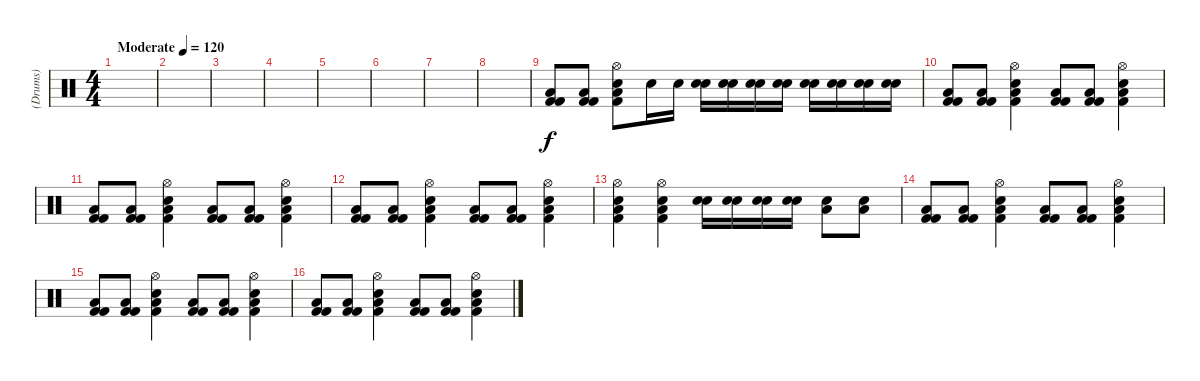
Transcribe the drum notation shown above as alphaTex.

\track ("(Drums)" "(Drums)") {instrument percussion}
\staff {score}
\articulation defaults
\ts (4 4)
\tempo (120 "Moderate")
\clef neutral
\ks c
|
|
|
|
|
|
|
|
("Kick (hit) 2" "Kick (hit) 2" "Low Floor Tom (hit)").8 ("Kick (hit) 2" "Kick (hit) 2" "Low Floor Tom (hit)").8 ("Kick (hit) 2" "Electric Snare (hit)" "Low Floor Tom (hit)" "Hi-Hat (open)").8 "Electric Snare (hit)".16 "Electric Snare (hit)".16 ("Electric Snare (hit)" "Electric Snare (hit)").16 ("Electric Snare (hit)" "Electric Snare (hit)").16 ("Electric Snare (hit)" "Electric Snare (hit)").16 ("Electric Snare (hit)" "Electric Snare (hit)").16 ("Electric Snare (hit)" "Electric Snare (hit)").16 ("Electric Snare (hit)" "Electric Snare (hit)").16 ("Electric Snare (hit)" "Electric Snare (hit)").16 ("Electric Snare (hit)" "Electric Snare (hit)").16 |
("Kick (hit) 2" "Kick (hit) 2" "Low Floor Tom (hit)").8 ("Kick (hit) 2" "Kick (hit) 2" "Low Floor Tom (hit)").8 ("Kick (hit) 2" "Electric Snare (hit)" "Low Floor Tom (hit)" "Hi-Hat (open)").4 ("Kick (hit) 2" "Kick (hit) 2" "Low Floor Tom (hit)").8 ("Kick (hit) 2" "Kick (hit) 2" "Low Floor Tom (hit)").8 ("Kick (hit) 2" "Electric Snare (hit)" "Low Floor Tom (hit)" "Hi-Hat (open)").4 |
("Kick (hit) 2" "Kick (hit) 2" "Low Floor Tom (hit)").8 ("Kick (hit) 2" "Kick (hit) 2" "Low Floor Tom (hit)").8 ("Kick (hit) 2" "Electric Snare (hit)" "Low Floor Tom (hit)" "Hi-Hat (open)").4 ("Kick (hit) 2" "Kick (hit) 2" "Low Floor Tom (hit)").8 ("Kick (hit) 2" "Kick (hit) 2" "Low Floor Tom (hit)").8 ("Kick (hit) 2" "Electric Snare (hit)" "Low Floor Tom (hit)" "Hi-Hat (open)").4 |
("Kick (hit) 2" "Kick (hit) 2" "Low Floor Tom (hit)").8 ("Kick (hit) 2" "Kick (hit) 2" "Low Floor Tom (hit)").8 ("Kick (hit) 2" "Electric Snare (hit)" "Low Floor Tom (hit)" "Hi-Hat (open)").4 ("Kick (hit) 2" "Kick (hit) 2" "Low Floor Tom (hit)").8 ("Kick (hit) 2" "Kick (hit) 2" "Low Floor Tom (hit)").8 ("Kick (hit) 2" "Electric Snare (hit)" "Low Floor Tom (hit)" "Hi-Hat (open)").4 |
("Kick (hit) 2" "Electric Snare (hit)" "Low Floor Tom (hit)" "Hi-Hat (open)").4 ("Kick (hit) 2" "Electric Snare (hit)" "Low Floor Tom (hit)" "Hi-Hat (open)").4 ("Electric Snare (hit)" "Electric Snare (hit)").16 ("Electric Snare (hit)" "Electric Snare (hit)").16 ("Electric Snare (hit)" "Electric Snare (hit)").16 ("Electric Snare (hit)" "Electric Snare (hit)").16 ("Electric Snare (hit)" "Low Floor Tom (hit)").8 ("Electric Snare (hit)" "Low Floor Tom (hit)").8 |
("Kick (hit) 2" "Kick (hit) 2" "Low Floor Tom (hit)").8 ("Kick (hit) 2" "Kick (hit) 2" "Low Floor Tom (hit)").8 ("Kick (hit) 2" "Electric Snare (hit)" "Low Floor Tom (hit)" "Hi-Hat (open)").4 ("Kick (hit) 2" "Kick (hit) 2" "Low Floor Tom (hit)").8 ("Kick (hit) 2" "Kick (hit) 2" "Low Floor Tom (hit)").8 ("Kick (hit) 2" "Electric Snare (hit)" "Low Floor Tom (hit)" "Hi-Hat (open)").4 |
("Kick (hit) 2" "Kick (hit) 2" "Low Floor Tom (hit)").8 ("Kick (hit) 2" "Kick (hit) 2" "Low Floor Tom (hit)").8 ("Kick (hit) 2" "Electric Snare (hit)" "Low Floor Tom (hit)" "Hi-Hat (open)").4 ("Kick (hit) 2" "Kick (hit) 2" "Low Floor Tom (hit)").8 ("Kick (hit) 2" "Kick (hit) 2" "Low Floor Tom (hit)").8 ("Kick (hit) 2" "Electric Snare (hit)" "Low Floor Tom (hit)" "Hi-Hat (open)").4 |
("Kick (hit) 2" "Kick (hit) 2" "Low Floor Tom (hit)").8 ("Kick (hit) 2" "Kick (hit) 2" "Low Floor Tom (hit)").8 ("Kick (hit) 2" "Electric Snare (hit)" "Low Floor Tom (hit)" "Hi-Hat (open)").4 ("Kick (hit) 2" "Kick (hit) 2" "Low Floor Tom (hit)").8 ("Kick (hit) 2" "Kick (hit) 2" "Low Floor Tom (hit)").8 ("Kick (hit) 2" "Electric Snare (hit)" "Low Floor Tom (hit)" "Hi-Hat (open)").4
